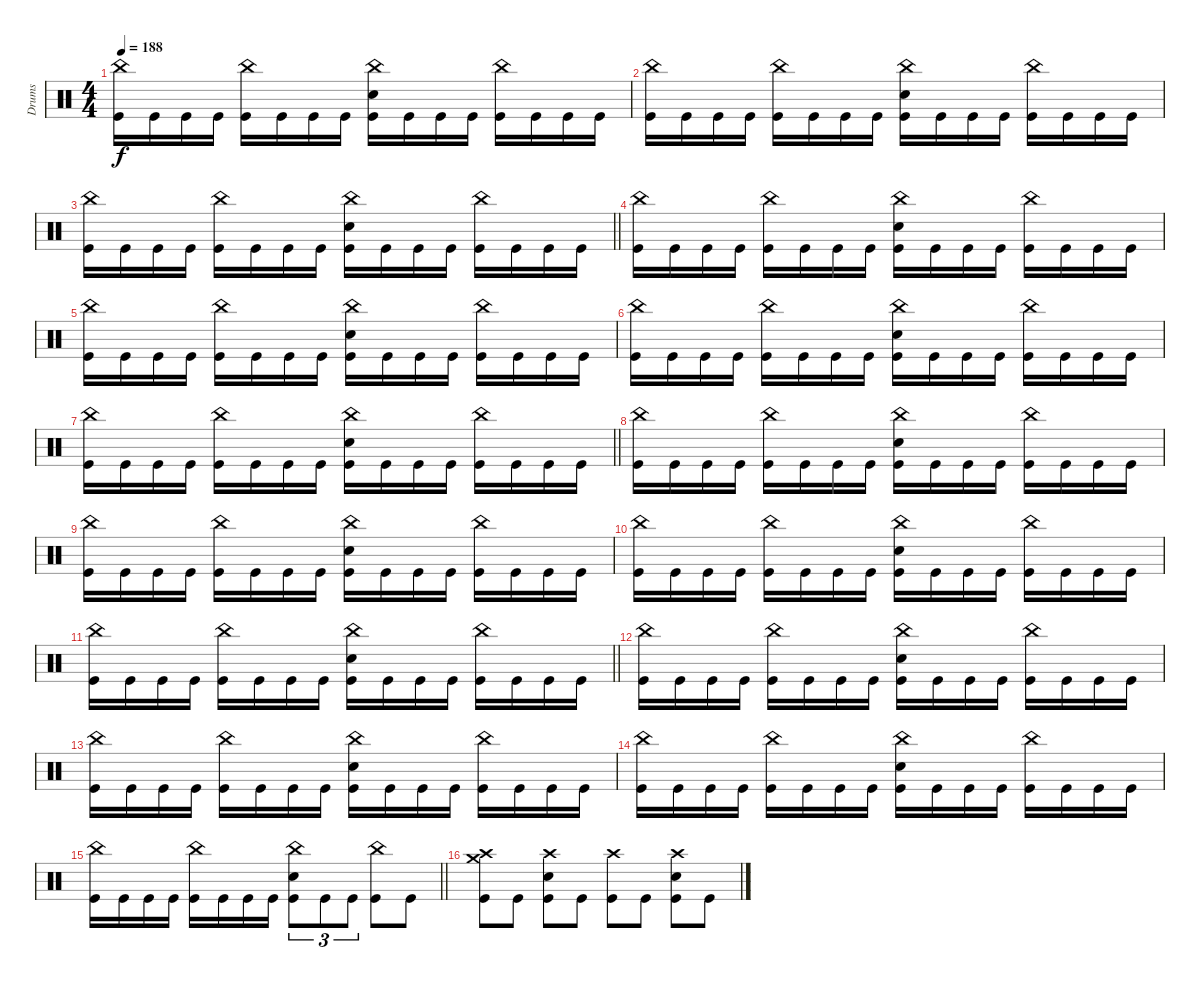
\track ("Drums" "Drums") {instrument percussion}
\staff
\articulation defaults
\ts (4 4)
\tempo 188
\clef neutral
\ks c
("China (hit)" "Kick (hit)").16{dy f} "Kick (hit)".16 "Kick (hit)".16 "Kick (hit)".16 ("China (hit)" "Kick (hit)").16 "Kick (hit)".16 "Kick (hit)".16 "Kick (hit)".16 ("China (hit)" "Electric Snare (hit)" "Kick (hit)").16 "Kick (hit)".16 "Kick (hit)".16 "Kick (hit)".16 ("China (hit)" "Kick (hit)").16 "Kick (hit)".16 "Kick (hit)".16 "Kick (hit)".16 |
("China (hit)" "Kick (hit)").16 "Kick (hit)".16 "Kick (hit)".16 "Kick (hit)".16 ("China (hit)" "Kick (hit)").16 "Kick (hit)".16 "Kick (hit)".16 "Kick (hit)".16 ("China (hit)" "Electric Snare (hit)" "Kick (hit)").16 "Kick (hit)".16 "Kick (hit)".16 "Kick (hit)".16 ("China (hit)" "Kick (hit)").16 "Kick (hit)".16 "Kick (hit)".16 "Kick (hit)".16 |
\barLineRight lightlight
("China (hit)" "Kick (hit)").16 "Kick (hit)".16 "Kick (hit)".16 "Kick (hit)".16 ("China (hit)" "Kick (hit)").16 "Kick (hit)".16 "Kick (hit)".16 "Kick (hit)".16 ("China (hit)" "Electric Snare (hit)" "Kick (hit)").16 "Kick (hit)".16 "Kick (hit)".16 "Kick (hit)".16 ("China (hit)" "Kick (hit)").16 "Kick (hit)".16 "Kick (hit)".16 "Kick (hit)".16 |
("China (hit)" "Kick (hit)").16 "Kick (hit)".16 "Kick (hit)".16 "Kick (hit)".16 ("China (hit)" "Kick (hit)").16 "Kick (hit)".16 "Kick (hit)".16 "Kick (hit)".16 ("China (hit)" "Electric Snare (hit)" "Kick (hit)").16 "Kick (hit)".16 "Kick (hit)".16 "Kick (hit)".16 ("China (hit)" "Kick (hit)").16 "Kick (hit)".16 "Kick (hit)".16 "Kick (hit)".16 |
("China (hit)" "Kick (hit)").16 "Kick (hit)".16 "Kick (hit)".16 "Kick (hit)".16 ("China (hit)" "Kick (hit)").16 "Kick (hit)".16 "Kick (hit)".16 "Kick (hit)".16 ("China (hit)" "Electric Snare (hit)" "Kick (hit)").16 "Kick (hit)".16 "Kick (hit)".16 "Kick (hit)".16 ("China (hit)" "Kick (hit)").16 "Kick (hit)".16 "Kick (hit)".16 "Kick (hit)".16 |
("China (hit)" "Kick (hit)").16 "Kick (hit)".16 "Kick (hit)".16 "Kick (hit)".16 ("China (hit)" "Kick (hit)").16 "Kick (hit)".16 "Kick (hit)".16 "Kick (hit)".16 ("China (hit)" "Electric Snare (hit)" "Kick (hit)").16 "Kick (hit)".16 "Kick (hit)".16 "Kick (hit)".16 ("China (hit)" "Kick (hit)").16 "Kick (hit)".16 "Kick (hit)".16 "Kick (hit)".16 |
\barLineRight lightlight
("China (hit)" "Kick (hit)").16 "Kick (hit)".16 "Kick (hit)".16 "Kick (hit)".16 ("China (hit)" "Kick (hit)").16 "Kick (hit)".16 "Kick (hit)".16 "Kick (hit)".16 ("China (hit)" "Electric Snare (hit)" "Kick (hit)").16 "Kick (hit)".16 "Kick (hit)".16 "Kick (hit)".16 ("China (hit)" "Kick (hit)").16 "Kick (hit)".16 "Kick (hit)".16 "Kick (hit)".16 |
("China (hit)" "Kick (hit)").16 "Kick (hit)".16 "Kick (hit)".16 "Kick (hit)".16 ("China (hit)" "Kick (hit)").16 "Kick (hit)".16 "Kick (hit)".16 "Kick (hit)".16 ("China (hit)" "Electric Snare (hit)" "Kick (hit)").16 "Kick (hit)".16 "Kick (hit)".16 "Kick (hit)".16 ("China (hit)" "Kick (hit)").16 "Kick (hit)".16 "Kick (hit)".16 "Kick (hit)".16 |
("China (hit)" "Kick (hit)").16 "Kick (hit)".16 "Kick (hit)".16 "Kick (hit)".16 ("China (hit)" "Kick (hit)").16 "Kick (hit)".16 "Kick (hit)".16 "Kick (hit)".16 ("China (hit)" "Electric Snare (hit)" "Kick (hit)").16 "Kick (hit)".16 "Kick (hit)".16 "Kick (hit)".16 ("China (hit)" "Kick (hit)").16 "Kick (hit)".16 "Kick (hit)".16 "Kick (hit)".16 |
("China (hit)" "Kick (hit)").16 "Kick (hit)".16 "Kick (hit)".16 "Kick (hit)".16 ("China (hit)" "Kick (hit)").16 "Kick (hit)".16 "Kick (hit)".16 "Kick (hit)".16 ("China (hit)" "Electric Snare (hit)" "Kick (hit)").16 "Kick (hit)".16 "Kick (hit)".16 "Kick (hit)".16 ("China (hit)" "Kick (hit)").16 "Kick (hit)".16 "Kick (hit)".16 "Kick (hit)".16 |
\barLineRight lightlight
("China (hit)" "Kick (hit)").16 "Kick (hit)".16 "Kick (hit)".16 "Kick (hit)".16 ("China (hit)" "Kick (hit)").16 "Kick (hit)".16 "Kick (hit)".16 "Kick (hit)".16 ("China (hit)" "Electric Snare (hit)" "Kick (hit)").16 "Kick (hit)".16 "Kick (hit)".16 "Kick (hit)".16 ("China (hit)" "Kick (hit)").16 "Kick (hit)".16 "Kick (hit)".16 "Kick (hit)".16 |
("China (hit)" "Kick (hit)").16 "Kick (hit)".16 "Kick (hit)".16 "Kick (hit)".16 ("China (hit)" "Kick (hit)").16 "Kick (hit)".16 "Kick (hit)".16 "Kick (hit)".16 ("China (hit)" "Electric Snare (hit)" "Kick (hit)").16 "Kick (hit)".16 "Kick (hit)".16 "Kick (hit)".16 ("China (hit)" "Kick (hit)").16 "Kick (hit)".16 "Kick (hit)".16 "Kick (hit)".16 |
("China (hit)" "Kick (hit)").16 "Kick (hit)".16 "Kick (hit)".16 "Kick (hit)".16 ("China (hit)" "Kick (hit)").16 "Kick (hit)".16 "Kick (hit)".16 "Kick (hit)".16 ("China (hit)" "Electric Snare (hit)" "Kick (hit)").16 "Kick (hit)".16 "Kick (hit)".16 "Kick (hit)".16 ("China (hit)" "Kick (hit)").16 "Kick (hit)".16 "Kick (hit)".16 "Kick (hit)".16 |
("China (hit)" "Kick (hit)").16 "Kick (hit)".16 "Kick (hit)".16 "Kick (hit)".16 ("China (hit)" "Kick (hit)").16 "Kick (hit)".16 "Kick (hit)".16 "Kick (hit)".16 ("China (hit)" "Electric Snare (hit)" "Kick (hit)").16 "Kick (hit)".16 "Kick (hit)".16 "Kick (hit)".16 ("China (hit)" "Kick (hit)").16 "Kick (hit)".16 "Kick (hit)".16 "Kick (hit)".16 |
\barLineRight lightlight
("China (hit)" "Kick (hit)").16 "Kick (hit)".16 "Kick (hit)".16 "Kick (hit)".16 ("China (hit)" "Kick (hit)").16 "Kick (hit)".16 "Kick (hit)".16 "Kick (hit)".16 ("China (hit)" "Electric Snare (hit)" "Kick (hit)").8{tu (3 2)} "Kick (hit)".8{tu (3 2)} "Kick (hit)".8{tu (3 2)} ("China (hit)" "Kick (hit)").8 "Kick (hit)".8 |
\section ("" "")
("Crash high (hit)" "Crash medium (hit)" "Kick (hit)").8 "Kick (hit)".8 ("Crash high (hit)" "Electric Snare (hit)" "Kick (hit)").8 "Kick (hit)".8 ("Crash high (hit)" "Kick (hit)").8 "Kick (hit)".8 ("Crash high (hit)" "Electric Snare (hit)" "Kick (hit)").8 "Kick (hit)".8
